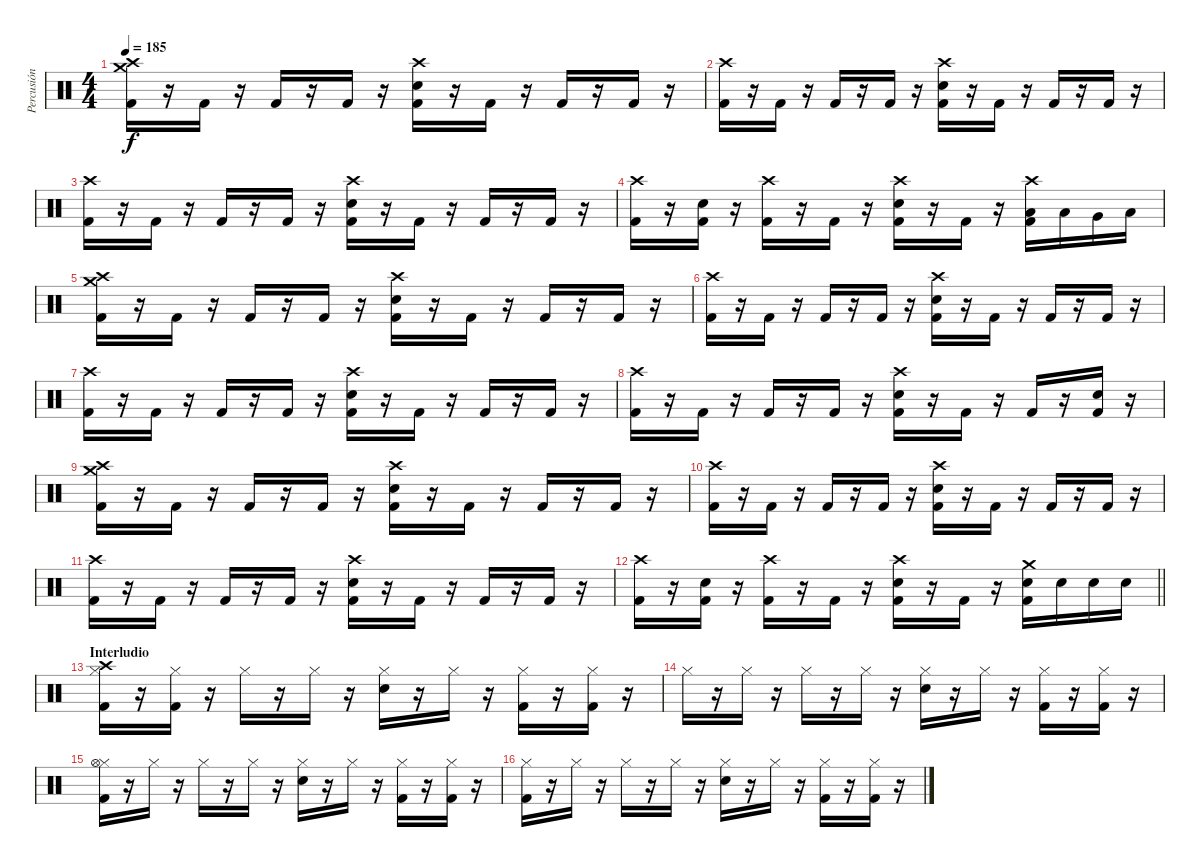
\track ("Percusión" "Percusión") {instrument percussion}
\staff {score}
\articulation defaults
\ts (4 4)
\tempo 185
\clef neutral
\ks c
("Crash high (hit)" "Crash medium (hit)" "Kick (hit) 2").16{dy f} r.16 "Kick (hit) 2".16 r.16 "Kick (hit) 2".16 r.16 "Kick (hit) 2".16 r.16 ("Crash high (hit)" "Electric Snare (hit)" "Kick (hit) 2").16 r.16 "Kick (hit) 2".16 r.16 "Kick (hit) 2".16 r.16 "Kick (hit) 2".16 r.16 |
("Crash high (hit)" "Kick (hit) 2").16 r.16 "Kick (hit) 2".16 r.16 "Kick (hit) 2".16 r.16 "Kick (hit) 2".16 r.16 ("Crash high (hit)" "Electric Snare (hit)" "Kick (hit) 2").16 r.16 "Kick (hit) 2".16 r.16 "Kick (hit) 2".16 r.16 "Kick (hit) 2".16 r.16 |
("Crash high (hit)" "Kick (hit) 2").16 r.16 "Kick (hit) 2".16 r.16 "Kick (hit) 2".16 r.16 "Kick (hit) 2".16 r.16 ("Crash high (hit)" "Electric Snare (hit)" "Kick (hit) 2").16 r.16 "Kick (hit) 2".16 r.16 "Kick (hit) 2".16 r.16 "Kick (hit) 2".16 r.16 |
("Crash high (hit)" "Kick (hit) 2").16 r.16 ("Electric Snare (hit)" "Kick (hit) 2").16 r.16 ("Crash high (hit)" "Kick (hit) 2").16 r.16 "Kick (hit) 2".16 r.16 ("Crash high (hit)" "Electric Snare (hit)" "Kick (hit) 2").16 r.16 "Kick (hit) 2".16 r.16 ("Crash high (hit)" "Low Tom (hit)" "Kick (hit) 2").16 "Low Tom (hit)".16 "Very Low Tom (hit)".16 "Low Floor Tom (hit)".16 |
("Crash high (hit)" "Crash medium (hit)" "Kick (hit) 2").16 r.16 "Kick (hit) 2".16 r.16 "Kick (hit) 2".16 r.16 "Kick (hit) 2".16 r.16 ("Crash high (hit)" "Electric Snare (hit)" "Kick (hit) 2").16 r.16 "Kick (hit) 2".16 r.16 "Kick (hit) 2".16 r.16 "Kick (hit) 2".16 r.16 |
("Crash high (hit)" "Kick (hit) 2").16 r.16 "Kick (hit) 2".16 r.16 "Kick (hit) 2".16 r.16 "Kick (hit) 2".16 r.16 ("Crash high (hit)" "Electric Snare (hit)" "Kick (hit) 2").16 r.16 "Kick (hit) 2".16 r.16 "Kick (hit) 2".16 r.16 "Kick (hit) 2".16 r.16 |
("Crash high (hit)" "Kick (hit) 2").16 r.16 "Kick (hit) 2".16 r.16 "Kick (hit) 2".16 r.16 "Kick (hit) 2".16 r.16 ("Crash high (hit)" "Electric Snare (hit)" "Kick (hit) 2").16 r.16 "Kick (hit) 2".16 r.16 "Kick (hit) 2".16 r.16 "Kick (hit) 2".16 r.16 |
("Crash high (hit)" "Kick (hit) 2").16 r.16 "Kick (hit) 2".16 r.16 "Kick (hit) 2".16 r.16 "Kick (hit) 2".16 r.16 ("Crash high (hit)" "Electric Snare (hit)" "Kick (hit) 2").16 r.16 "Kick (hit) 2".16 r.16 "Kick (hit) 2".16 r.16 ("Electric Snare (hit)" "Kick (hit) 2").16 r.16 |
("Crash high (hit)" "Crash medium (hit)" "Kick (hit) 2").16 r.16 "Kick (hit) 2".16 r.16 "Kick (hit) 2".16 r.16 "Kick (hit) 2".16 r.16 ("Crash high (hit)" "Electric Snare (hit)" "Kick (hit) 2").16 r.16 "Kick (hit) 2".16 r.16 "Kick (hit) 2".16 r.16 "Kick (hit) 2".16 r.16 |
("Crash high (hit)" "Kick (hit) 2").16 r.16 "Kick (hit) 2".16 r.16 "Kick (hit) 2".16 r.16 "Kick (hit) 2".16 r.16 ("Crash high (hit)" "Electric Snare (hit)" "Kick (hit) 2").16 r.16 "Kick (hit) 2".16 r.16 "Kick (hit) 2".16 r.16 "Kick (hit) 2".16 r.16 |
("Crash high (hit)" "Kick (hit) 2").16 r.16 "Kick (hit) 2".16 r.16 "Kick (hit) 2".16 r.16 "Kick (hit) 2".16 r.16 ("Crash high (hit)" "Electric Snare (hit)" "Kick (hit) 2").16 r.16 "Kick (hit) 2".16 r.16 "Kick (hit) 2".16 r.16 "Kick (hit) 2".16 r.16 |
\barLineRight lightlight
("Crash high (hit)" "Kick (hit) 2").16 r.16 ("Electric Snare (hit)" "Kick (hit) 2").16 r.16 ("Crash high (hit)" "Kick (hit) 2").16 r.16 "Kick (hit) 2".16 r.16 ("Crash high (hit)" "Electric Snare (hit)" "Kick (hit) 2").16 r.16 "Kick (hit) 2".16 r.16 ("Crash medium (hit)" "Electric Snare (hit)" "Kick (hit) 2").16 "Electric Snare (hit)".16 "Electric Snare (hit)".16 "Electric Snare (hit)".16 |
\section ("" "Interludio")
("Hi-Hat (closed)" "Crash high (hit)" "Kick (hit) 2").16 r.16 ("Hi-Hat (closed)" "Kick (hit) 2").16 r.16 "Hi-Hat (closed)".16 r.16 "Hi-Hat (closed)".16 r.16 ("Hi-Hat (closed)" "Electric Snare (hit)").16 r.16 "Hi-Hat (closed)".16 r.16 ("Hi-Hat (closed)" "Kick (hit) 2").16 r.16 ("Hi-Hat (closed)" "Kick (hit) 2").16 r.16 |
"Hi-Hat (closed)".16 r.16 "Hi-Hat (closed)".16 r.16 "Hi-Hat (closed)".16 r.16 "Hi-Hat (closed)".16 r.16 ("Hi-Hat (closed)" "Electric Snare (hit)").16 r.16 "Hi-Hat (closed)".16 r.16 ("Hi-Hat (closed)" "Kick (hit) 2").16 r.16 ("Hi-Hat (closed)" "Kick (hit) 2").16 r.16 |
("Hi-Hat (closed)" "Hi-Hat (open)" "Kick (hit) 2").16 r.16 "Hi-Hat (closed)".16 r.16 "Hi-Hat (closed)".16 r.16 "Hi-Hat (closed)".16 r.16 ("Hi-Hat (closed)" "Electric Snare (hit)").16 r.16 "Hi-Hat (closed)".16 r.16 ("Hi-Hat (closed)" "Kick (hit) 2").16 r.16 ("Hi-Hat (closed)" "Kick (hit) 2").16 r.16 |
("Hi-Hat (closed)" "Kick (hit) 2").16 r.16 "Hi-Hat (closed)".16 r.16 "Hi-Hat (closed)".16 r.16 "Hi-Hat (closed)".16 r.16 ("Hi-Hat (closed)" "Electric Snare (hit)").16 r.16 "Hi-Hat (closed)".16 r.16 ("Hi-Hat (closed)" "Kick (hit) 2").16 r.16 ("Hi-Hat (closed)" "Kick (hit) 2").16 r.16
